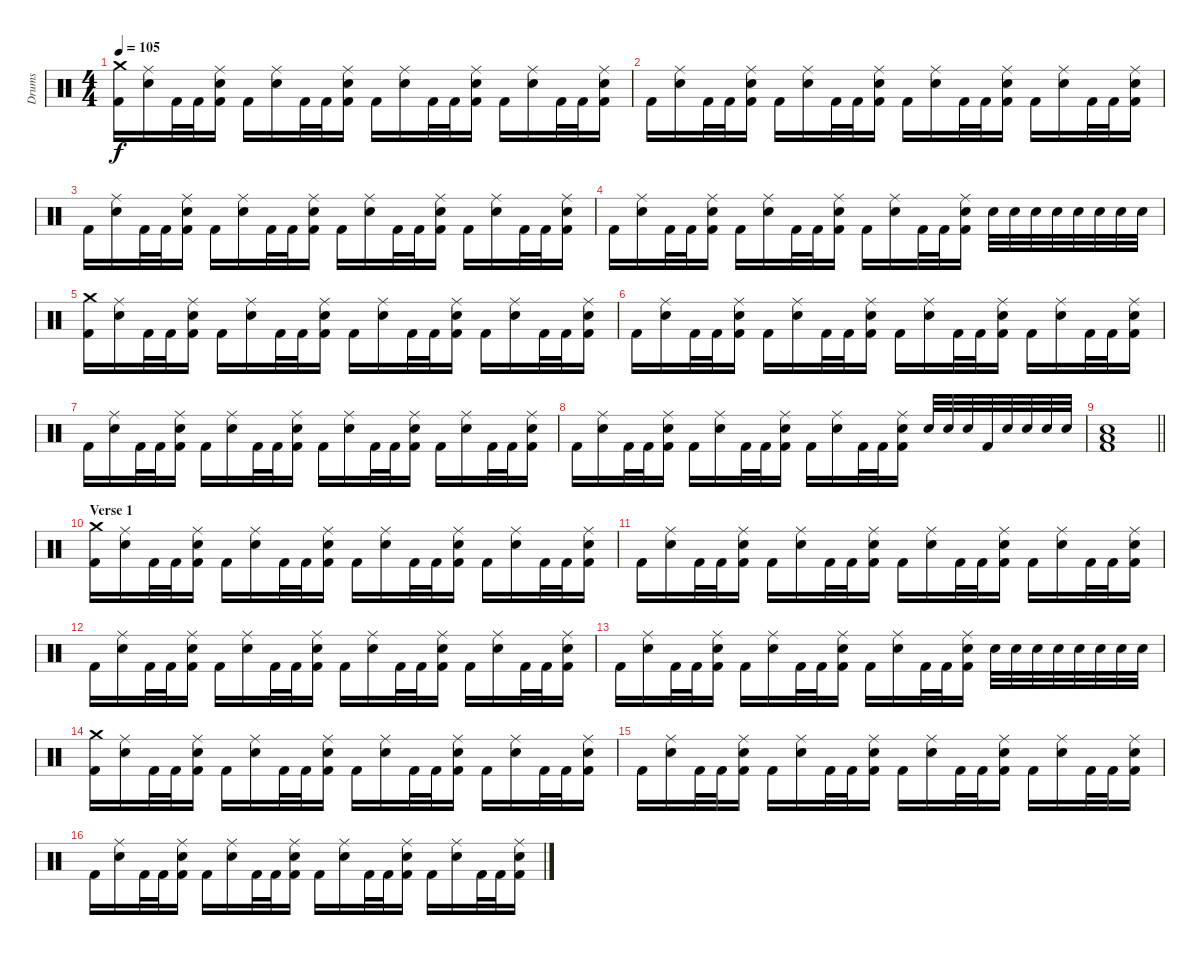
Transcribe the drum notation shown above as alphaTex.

\track ("Drums" "Drums") {instrument percussion}
\staff {score}
\articulation defaults
\ts (4 4)
\tempo 105
\clef neutral
\ks c
("Crash medium (hit)" "Kick (hit) 2").16{dy f} ("Ride (middle)" "Electric Snare (hit)").16 "Kick (hit) 2".32 "Kick (hit) 2".32 ("Ride (middle)" "Electric Snare (hit)" "Kick (hit) 2").16 "Kick (hit) 2".16 ("Ride (middle)" "Electric Snare (hit)").16 "Kick (hit) 2".32 "Kick (hit) 2".32 ("Ride (middle)" "Electric Snare (hit)" "Kick (hit) 2").16 "Kick (hit) 2".16 ("Ride (middle)" "Electric Snare (hit)").16 "Kick (hit) 2".32 "Kick (hit) 2".32 ("Ride (middle)" "Electric Snare (hit)" "Kick (hit) 2").16 "Kick (hit) 2".16 ("Ride (middle)" "Electric Snare (hit)").16 "Kick (hit) 2".32 "Kick (hit) 2".32 ("Ride (middle)" "Electric Snare (hit)" "Kick (hit) 2").16 |
"Kick (hit) 2".16 ("Ride (middle)" "Electric Snare (hit)").16 "Kick (hit) 2".32 "Kick (hit) 2".32 ("Ride (middle)" "Electric Snare (hit)" "Kick (hit) 2").16 "Kick (hit) 2".16 ("Ride (middle)" "Electric Snare (hit)").16 "Kick (hit) 2".32 "Kick (hit) 2".32 ("Ride (middle)" "Electric Snare (hit)" "Kick (hit) 2").16 "Kick (hit) 2".16 ("Ride (middle)" "Electric Snare (hit)").16 "Kick (hit) 2".32 "Kick (hit) 2".32 ("Ride (middle)" "Electric Snare (hit)" "Kick (hit) 2").16 "Kick (hit) 2".16 ("Ride (middle)" "Electric Snare (hit)").16 "Kick (hit) 2".32 "Kick (hit) 2".32 ("Ride (middle)" "Electric Snare (hit)" "Kick (hit) 2").16 |
"Kick (hit) 2".16 ("Ride (middle)" "Electric Snare (hit)").16 "Kick (hit) 2".32 "Kick (hit) 2".32 ("Ride (middle)" "Electric Snare (hit)" "Kick (hit) 2").16 "Kick (hit) 2".16 ("Ride (middle)" "Electric Snare (hit)").16 "Kick (hit) 2".32 "Kick (hit) 2".32 ("Ride (middle)" "Electric Snare (hit)" "Kick (hit) 2").16 "Kick (hit) 2".16 ("Ride (middle)" "Electric Snare (hit)").16 "Kick (hit) 2".32 "Kick (hit) 2".32 ("Ride (middle)" "Electric Snare (hit)" "Kick (hit) 2").16 "Kick (hit) 2".16 ("Ride (middle)" "Electric Snare (hit)").16 "Kick (hit) 2".32 "Kick (hit) 2".32 ("Ride (middle)" "Electric Snare (hit)" "Kick (hit) 2").16 |
"Kick (hit) 2".16 ("Ride (middle)" "Electric Snare (hit)").16 "Kick (hit) 2".32 "Kick (hit) 2".32 ("Ride (middle)" "Electric Snare (hit)" "Kick (hit) 2").16 "Kick (hit) 2".16 ("Ride (middle)" "Electric Snare (hit)").16 "Kick (hit) 2".32 "Kick (hit) 2".32 ("Ride (middle)" "Electric Snare (hit)" "Kick (hit) 2").16 "Kick (hit) 2".16 ("Ride (middle)" "Electric Snare (hit)").16 "Kick (hit) 2".32 "Kick (hit) 2".32 ("Ride (middle)" "Electric Snare (hit)" "Kick (hit) 2").16 "Electric Snare (hit)".32 "Electric Snare (hit)".32 "Electric Snare (hit)".32 "Electric Snare (hit)".32 "Electric Snare (hit)".32 "Electric Snare (hit)".32 "Electric Snare (hit)".32 "Electric Snare (hit)".32 |
("Crash medium (hit)" "Kick (hit) 2").16 ("Ride (middle)" "Electric Snare (hit)").16 "Kick (hit) 2".32 "Kick (hit) 2".32 ("Ride (middle)" "Electric Snare (hit)" "Kick (hit) 2").16 "Kick (hit) 2".16 ("Ride (middle)" "Electric Snare (hit)").16 "Kick (hit) 2".32 "Kick (hit) 2".32 ("Ride (middle)" "Electric Snare (hit)" "Kick (hit) 2").16 "Kick (hit) 2".16 ("Ride (middle)" "Electric Snare (hit)").16 "Kick (hit) 2".32 "Kick (hit) 2".32 ("Ride (middle)" "Electric Snare (hit)" "Kick (hit) 2").16 "Kick (hit) 2".16 ("Ride (middle)" "Electric Snare (hit)").16 "Kick (hit) 2".32 "Kick (hit) 2".32 ("Ride (middle)" "Electric Snare (hit)" "Kick (hit) 2").16 |
"Kick (hit) 2".16 ("Ride (middle)" "Electric Snare (hit)").16 "Kick (hit) 2".32 "Kick (hit) 2".32 ("Ride (middle)" "Electric Snare (hit)" "Kick (hit) 2").16 "Kick (hit) 2".16 ("Ride (middle)" "Electric Snare (hit)").16 "Kick (hit) 2".32 "Kick (hit) 2".32 ("Ride (middle)" "Electric Snare (hit)" "Kick (hit) 2").16 "Kick (hit) 2".16 ("Ride (middle)" "Electric Snare (hit)").16 "Kick (hit) 2".32 "Kick (hit) 2".32 ("Ride (middle)" "Electric Snare (hit)" "Kick (hit) 2").16 "Kick (hit) 2".16 ("Ride (middle)" "Electric Snare (hit)").16 "Kick (hit) 2".32 "Kick (hit) 2".32 ("Ride (middle)" "Electric Snare (hit)" "Kick (hit) 2").16 |
"Kick (hit) 2".16 ("Ride (middle)" "Electric Snare (hit)").16 "Kick (hit) 2".32 "Kick (hit) 2".32 ("Ride (middle)" "Electric Snare (hit)" "Kick (hit) 2").16 "Kick (hit) 2".16 ("Ride (middle)" "Electric Snare (hit)").16 "Kick (hit) 2".32 "Kick (hit) 2".32 ("Ride (middle)" "Electric Snare (hit)" "Kick (hit) 2").16 "Kick (hit) 2".16 ("Ride (middle)" "Electric Snare (hit)").16 "Kick (hit) 2".32 "Kick (hit) 2".32 ("Ride (middle)" "Electric Snare (hit)" "Kick (hit) 2").16 "Kick (hit) 2".16 ("Ride (middle)" "Electric Snare (hit)").16 "Kick (hit) 2".32 "Kick (hit) 2".32 ("Ride (middle)" "Electric Snare (hit)" "Kick (hit) 2").16 |
"Kick (hit) 2".16 ("Ride (middle)" "Electric Snare (hit)").16 "Kick (hit) 2".32 "Kick (hit) 2".32 ("Ride (middle)" "Electric Snare (hit)" "Kick (hit) 2").16 "Kick (hit) 2".16 ("Ride (middle)" "Electric Snare (hit)").16 "Kick (hit) 2".32 "Kick (hit) 2".32 ("Ride (middle)" "Electric Snare (hit)" "Kick (hit) 2").16 "Kick (hit) 2".16 ("Ride (middle)" "Electric Snare (hit)").16 "Kick (hit) 2".32 "Kick (hit) 2".32 ("Ride (middle)" "Electric Snare (hit)" "Kick (hit) 2").16 "Electric Snare (hit)".32 "Electric Snare (hit)".32 "Electric Snare (hit)".32 "Kick (hit) 2".32 "Electric Snare (hit)".32 "Electric Snare (hit)".32 "Electric Snare (hit)".32 "Electric Snare (hit)".32 |
\barLineRight lightlight
("Low Tom (hit)" "Electric Snare (hit)" "Kick (hit) 2").1 |
\section ("" "Verse 1")
("Crash medium (hit)" "Kick (hit) 2").16 ("Ride (middle)" "Electric Snare (hit)").16 "Kick (hit) 2".32 "Kick (hit) 2".32 ("Ride (middle)" "Electric Snare (hit)" "Kick (hit) 2").16 "Kick (hit) 2".16 ("Ride (middle)" "Electric Snare (hit)").16 "Kick (hit) 2".32 "Kick (hit) 2".32 ("Ride (middle)" "Electric Snare (hit)" "Kick (hit) 2").16 "Kick (hit) 2".16 ("Ride (middle)" "Electric Snare (hit)").16 "Kick (hit) 2".32 "Kick (hit) 2".32 ("Ride (middle)" "Electric Snare (hit)" "Kick (hit) 2").16 "Kick (hit) 2".16 ("Ride (middle)" "Electric Snare (hit)").16 "Kick (hit) 2".32 "Kick (hit) 2".32 ("Ride (middle)" "Electric Snare (hit)" "Kick (hit) 2").16 |
"Kick (hit) 2".16 ("Ride (middle)" "Electric Snare (hit)").16 "Kick (hit) 2".32 "Kick (hit) 2".32 ("Ride (middle)" "Electric Snare (hit)" "Kick (hit) 2").16 "Kick (hit) 2".16 ("Ride (middle)" "Electric Snare (hit)").16 "Kick (hit) 2".32 "Kick (hit) 2".32 ("Ride (middle)" "Electric Snare (hit)" "Kick (hit) 2").16 "Kick (hit) 2".16 ("Ride (middle)" "Electric Snare (hit)").16 "Kick (hit) 2".32 "Kick (hit) 2".32 ("Ride (middle)" "Electric Snare (hit)" "Kick (hit) 2").16 "Kick (hit) 2".16 ("Ride (middle)" "Electric Snare (hit)").16 "Kick (hit) 2".32 "Kick (hit) 2".32 ("Ride (middle)" "Electric Snare (hit)" "Kick (hit) 2").16 |
"Kick (hit) 2".16 ("Ride (middle)" "Electric Snare (hit)").16 "Kick (hit) 2".32 "Kick (hit) 2".32 ("Ride (middle)" "Electric Snare (hit)" "Kick (hit) 2").16 "Kick (hit) 2".16 ("Ride (middle)" "Electric Snare (hit)").16 "Kick (hit) 2".32 "Kick (hit) 2".32 ("Ride (middle)" "Electric Snare (hit)" "Kick (hit) 2").16 "Kick (hit) 2".16 ("Ride (middle)" "Electric Snare (hit)").16 "Kick (hit) 2".32 "Kick (hit) 2".32 ("Ride (middle)" "Electric Snare (hit)" "Kick (hit) 2").16 "Kick (hit) 2".16 ("Ride (middle)" "Electric Snare (hit)").16 "Kick (hit) 2".32 "Kick (hit) 2".32 ("Ride (middle)" "Electric Snare (hit)" "Kick (hit) 2").16 |
"Kick (hit) 2".16 ("Ride (middle)" "Electric Snare (hit)").16 "Kick (hit) 2".32 "Kick (hit) 2".32 ("Ride (middle)" "Electric Snare (hit)" "Kick (hit) 2").16 "Kick (hit) 2".16 ("Ride (middle)" "Electric Snare (hit)").16 "Kick (hit) 2".32 "Kick (hit) 2".32 ("Ride (middle)" "Electric Snare (hit)" "Kick (hit) 2").16 "Kick (hit) 2".16 ("Ride (middle)" "Electric Snare (hit)").16 "Kick (hit) 2".32 "Kick (hit) 2".32 ("Ride (middle)" "Electric Snare (hit)" "Kick (hit) 2").16 "Electric Snare (hit)".32 "Electric Snare (hit)".32 "Electric Snare (hit)".32 "Electric Snare (hit)".32 "Electric Snare (hit)".32 "Electric Snare (hit)".32 "Electric Snare (hit)".32 "Electric Snare (hit)".32 |
("Crash medium (hit)" "Kick (hit) 2").16 ("Ride (middle)" "Electric Snare (hit)").16 "Kick (hit) 2".32 "Kick (hit) 2".32 ("Ride (middle)" "Electric Snare (hit)" "Kick (hit) 2").16 "Kick (hit) 2".16 ("Ride (middle)" "Electric Snare (hit)").16 "Kick (hit) 2".32 "Kick (hit) 2".32 ("Ride (middle)" "Electric Snare (hit)" "Kick (hit) 2").16 "Kick (hit) 2".16 ("Ride (middle)" "Electric Snare (hit)").16 "Kick (hit) 2".32 "Kick (hit) 2".32 ("Ride (middle)" "Electric Snare (hit)" "Kick (hit) 2").16 "Kick (hit) 2".16 ("Ride (middle)" "Electric Snare (hit)").16 "Kick (hit) 2".32 "Kick (hit) 2".32 ("Ride (middle)" "Electric Snare (hit)" "Kick (hit) 2").16 |
"Kick (hit) 2".16 ("Ride (middle)" "Electric Snare (hit)").16 "Kick (hit) 2".32 "Kick (hit) 2".32 ("Ride (middle)" "Electric Snare (hit)" "Kick (hit) 2").16 "Kick (hit) 2".16 ("Ride (middle)" "Electric Snare (hit)").16 "Kick (hit) 2".32 "Kick (hit) 2".32 ("Ride (middle)" "Electric Snare (hit)" "Kick (hit) 2").16 "Kick (hit) 2".16 ("Ride (middle)" "Electric Snare (hit)").16 "Kick (hit) 2".32 "Kick (hit) 2".32 ("Ride (middle)" "Electric Snare (hit)" "Kick (hit) 2").16 "Kick (hit) 2".16 ("Ride (middle)" "Electric Snare (hit)").16 "Kick (hit) 2".32 "Kick (hit) 2".32 ("Ride (middle)" "Electric Snare (hit)" "Kick (hit) 2").16 |
"Kick (hit) 2".16 ("Ride (middle)" "Electric Snare (hit)").16 "Kick (hit) 2".32 "Kick (hit) 2".32 ("Ride (middle)" "Electric Snare (hit)" "Kick (hit) 2").16 "Kick (hit) 2".16 ("Ride (middle)" "Electric Snare (hit)").16 "Kick (hit) 2".32 "Kick (hit) 2".32 ("Ride (middle)" "Electric Snare (hit)" "Kick (hit) 2").16 "Kick (hit) 2".16 ("Ride (middle)" "Electric Snare (hit)").16 "Kick (hit) 2".32 "Kick (hit) 2".32 ("Ride (middle)" "Electric Snare (hit)" "Kick (hit) 2").16 "Kick (hit) 2".16 ("Ride (middle)" "Electric Snare (hit)").16 "Kick (hit) 2".32 "Kick (hit) 2".32 ("Ride (middle)" "Electric Snare (hit)" "Kick (hit) 2").16
